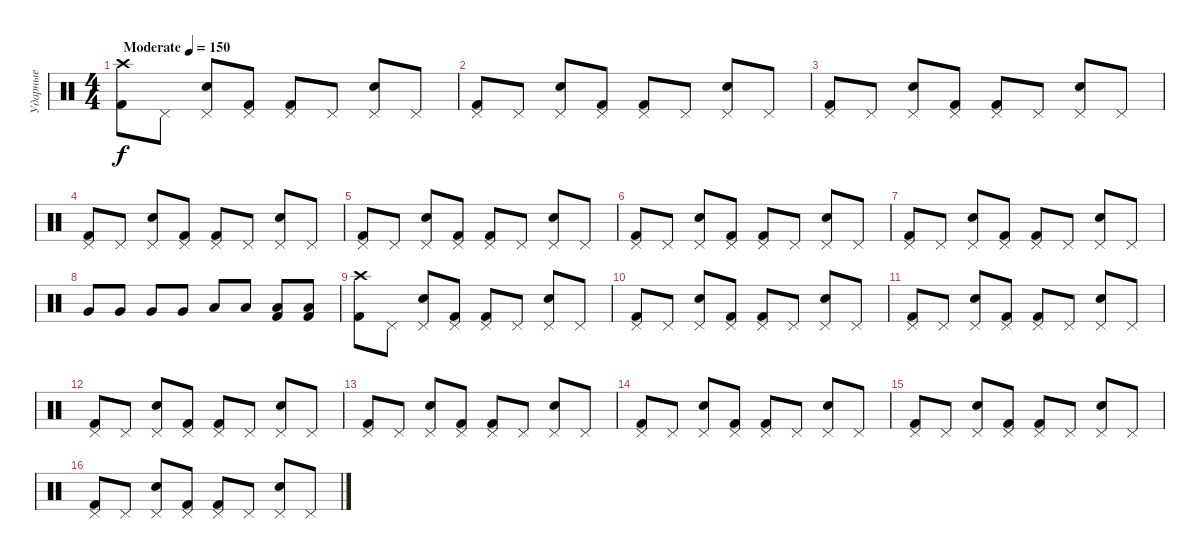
\track ("Ударные" "Ударные") {instrument percussion}
\staff {score}
\articulation defaults
\ts (4 4)
\tempo (150 "Moderate")
\clef neutral
\ks c
("Crash high (hit)" "Kick (hit) 2").8{dy f} "Pedal Hi-Hat (hit)".8 ("Pedal Hi-Hat (hit)" "Snare (hit) 2").8 ("Pedal Hi-Hat (hit)" "Kick (hit) 2").8 ("Pedal Hi-Hat (hit)" "Kick (hit) 2").8 "Pedal Hi-Hat (hit)".8 ("Pedal Hi-Hat (hit)" "Snare (hit) 2").8 "Pedal Hi-Hat (hit)".8 |
("Pedal Hi-Hat (hit)" "Kick (hit) 2").8 "Pedal Hi-Hat (hit)".8 ("Pedal Hi-Hat (hit)" "Snare (hit) 2").8 ("Pedal Hi-Hat (hit)" "Kick (hit) 2").8 ("Pedal Hi-Hat (hit)" "Kick (hit) 2").8 "Pedal Hi-Hat (hit)".8 ("Pedal Hi-Hat (hit)" "Snare (hit) 2").8 "Pedal Hi-Hat (hit)".8 |
("Pedal Hi-Hat (hit)" "Kick (hit) 2").8 "Pedal Hi-Hat (hit)".8 ("Pedal Hi-Hat (hit)" "Snare (hit) 2").8 ("Pedal Hi-Hat (hit)" "Kick (hit) 2").8 ("Pedal Hi-Hat (hit)" "Kick (hit) 2").8 "Pedal Hi-Hat (hit)".8 ("Pedal Hi-Hat (hit)" "Snare (hit) 2").8 "Pedal Hi-Hat (hit)".8 |
("Pedal Hi-Hat (hit)" "Kick (hit) 2").8 "Pedal Hi-Hat (hit)".8 ("Pedal Hi-Hat (hit)" "Snare (hit) 2").8 ("Pedal Hi-Hat (hit)" "Kick (hit) 2").8 ("Pedal Hi-Hat (hit)" "Kick (hit) 2").8 "Pedal Hi-Hat (hit)".8 ("Pedal Hi-Hat (hit)" "Snare (hit) 2").8 "Pedal Hi-Hat (hit)".8 |
("Pedal Hi-Hat (hit)" "Kick (hit) 2").8 "Pedal Hi-Hat (hit)".8 ("Pedal Hi-Hat (hit)" "Snare (hit) 2").8 ("Pedal Hi-Hat (hit)" "Kick (hit) 2").8 ("Pedal Hi-Hat (hit)" "Kick (hit) 2").8 "Pedal Hi-Hat (hit)".8 ("Pedal Hi-Hat (hit)" "Snare (hit) 2").8 "Pedal Hi-Hat (hit)".8 |
("Pedal Hi-Hat (hit)" "Kick (hit) 2").8 "Pedal Hi-Hat (hit)".8 ("Pedal Hi-Hat (hit)" "Snare (hit) 2").8 ("Pedal Hi-Hat (hit)" "Kick (hit) 2").8 ("Pedal Hi-Hat (hit)" "Kick (hit) 2").8 "Pedal Hi-Hat (hit)".8 ("Pedal Hi-Hat (hit)" "Snare (hit) 2").8 "Pedal Hi-Hat (hit)".8 |
("Pedal Hi-Hat (hit)" "Kick (hit) 2").8 "Pedal Hi-Hat (hit)".8 ("Pedal Hi-Hat (hit)" "Snare (hit) 2").8 ("Pedal Hi-Hat (hit)" "Kick (hit) 2").8 ("Pedal Hi-Hat (hit)" "Kick (hit) 2").8 "Pedal Hi-Hat (hit)".8 ("Pedal Hi-Hat (hit)" "Snare (hit) 2").8 "Pedal Hi-Hat (hit)".8 |
"Very Low Tom (hit)".8 "Very Low Tom (hit)".8 "Very Low Tom (hit)".8 "Very Low Tom (hit)".8 "Low Floor Tom (hit)".8 "Low Floor Tom (hit)".8 ("Low Floor Tom (hit)" "Kick (hit) 2").8 ("Low Floor Tom (hit)" "Kick (hit) 2").8 |
("Crash high (hit)" "Kick (hit) 2").8 "Pedal Hi-Hat (hit)".8 ("Pedal Hi-Hat (hit)" "Snare (hit) 2").8 ("Pedal Hi-Hat (hit)" "Kick (hit) 2").8 ("Pedal Hi-Hat (hit)" "Kick (hit) 2").8 "Pedal Hi-Hat (hit)".8 ("Pedal Hi-Hat (hit)" "Snare (hit) 2").8 "Pedal Hi-Hat (hit)".8 |
("Pedal Hi-Hat (hit)" "Kick (hit) 2").8 "Pedal Hi-Hat (hit)".8 ("Pedal Hi-Hat (hit)" "Snare (hit) 2").8 ("Pedal Hi-Hat (hit)" "Kick (hit) 2").8 ("Pedal Hi-Hat (hit)" "Kick (hit) 2").8 "Pedal Hi-Hat (hit)".8 ("Pedal Hi-Hat (hit)" "Snare (hit) 2").8 "Pedal Hi-Hat (hit)".8 |
("Pedal Hi-Hat (hit)" "Kick (hit) 2").8 "Pedal Hi-Hat (hit)".8 ("Pedal Hi-Hat (hit)" "Snare (hit) 2").8 ("Pedal Hi-Hat (hit)" "Kick (hit) 2").8 ("Pedal Hi-Hat (hit)" "Kick (hit) 2").8 "Pedal Hi-Hat (hit)".8 ("Pedal Hi-Hat (hit)" "Snare (hit) 2").8 "Pedal Hi-Hat (hit)".8 |
("Pedal Hi-Hat (hit)" "Kick (hit) 2").8 "Pedal Hi-Hat (hit)".8 ("Pedal Hi-Hat (hit)" "Snare (hit) 2").8 ("Pedal Hi-Hat (hit)" "Kick (hit) 2").8 ("Pedal Hi-Hat (hit)" "Kick (hit) 2").8 "Pedal Hi-Hat (hit)".8 ("Pedal Hi-Hat (hit)" "Snare (hit) 2").8 "Pedal Hi-Hat (hit)".8 |
("Pedal Hi-Hat (hit)" "Kick (hit) 2").8 "Pedal Hi-Hat (hit)".8 ("Pedal Hi-Hat (hit)" "Snare (hit) 2").8 ("Pedal Hi-Hat (hit)" "Kick (hit) 2").8 ("Pedal Hi-Hat (hit)" "Kick (hit) 2").8 "Pedal Hi-Hat (hit)".8 ("Pedal Hi-Hat (hit)" "Snare (hit) 2").8 "Pedal Hi-Hat (hit)".8 |
("Pedal Hi-Hat (hit)" "Kick (hit) 2").8 "Pedal Hi-Hat (hit)".8 ("Pedal Hi-Hat (hit)" "Snare (hit) 2").8 ("Pedal Hi-Hat (hit)" "Kick (hit) 2").8 ("Pedal Hi-Hat (hit)" "Kick (hit) 2").8 "Pedal Hi-Hat (hit)".8 ("Pedal Hi-Hat (hit)" "Snare (hit) 2").8 "Pedal Hi-Hat (hit)".8 |
("Pedal Hi-Hat (hit)" "Kick (hit) 2").8 "Pedal Hi-Hat (hit)".8 ("Pedal Hi-Hat (hit)" "Snare (hit) 2").8 ("Pedal Hi-Hat (hit)" "Kick (hit) 2").8 ("Pedal Hi-Hat (hit)" "Kick (hit) 2").8 "Pedal Hi-Hat (hit)".8 ("Pedal Hi-Hat (hit)" "Snare (hit) 2").8 "Pedal Hi-Hat (hit)".8 |
("Pedal Hi-Hat (hit)" "Kick (hit) 2").8 "Pedal Hi-Hat (hit)".8 ("Pedal Hi-Hat (hit)" "Snare (hit) 2").8 ("Pedal Hi-Hat (hit)" "Kick (hit) 2").8 ("Pedal Hi-Hat (hit)" "Kick (hit) 2").8 "Pedal Hi-Hat (hit)".8 ("Pedal Hi-Hat (hit)" "Snare (hit) 2").8 "Pedal Hi-Hat (hit)".8
